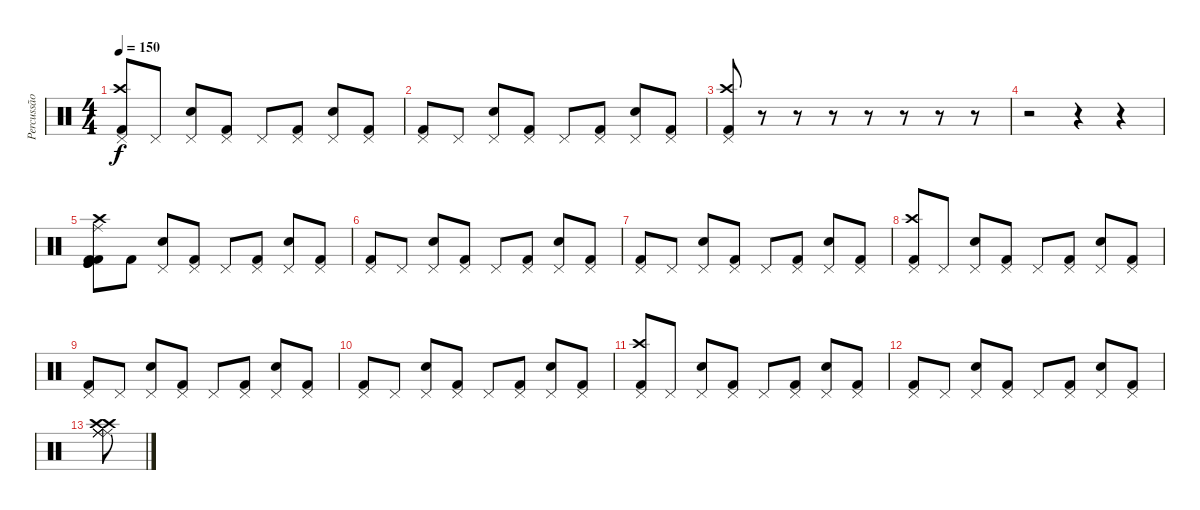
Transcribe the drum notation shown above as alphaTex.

\track ("Percussão" "Percussão") {instrument percussion}
\staff {score}
\articulation defaults
\ts (4 4)
\tempo 150
\clef neutral
\ks c
("Pedal Hi-Hat (hit)" "Crash high (hit)" "Kick (hit) 2").8{dy f} "Pedal Hi-Hat (hit)".8 ("Pedal Hi-Hat (hit)" "Electric Snare (hit)").8 ("Pedal Hi-Hat (hit)" "Kick (hit) 2").8 "Pedal Hi-Hat (hit)".8 ("Pedal Hi-Hat (hit)" "Kick (hit) 2").8 ("Pedal Hi-Hat (hit)" "Electric Snare (hit)").8 ("Pedal Hi-Hat (hit)" "Kick (hit) 2").8 |
("Pedal Hi-Hat (hit)" "Kick (hit) 2").8 "Pedal Hi-Hat (hit)".8 ("Pedal Hi-Hat (hit)" "Electric Snare (hit)").8 ("Pedal Hi-Hat (hit)" "Kick (hit) 2").8 "Pedal Hi-Hat (hit)".8 ("Pedal Hi-Hat (hit)" "Kick (hit) 2").8 ("Pedal Hi-Hat (hit)" "Electric Snare (hit)").8 ("Pedal Hi-Hat (hit)" "Kick (hit) 2").8 |
("Pedal Hi-Hat (hit)" "Crash high (hit)" "Kick (hit) 2").8 r.8 r.8 r.8 r.8 r.8 r.8 r.8 |
r.2 r.4 r.4 |
("Kick (hit) 2" "Kick (hit) 2" "Ride (middle)" "Kick (hit)" "Kick (hit)" "Crash high (hit)").8 "Kick (hit) 2".8 ("Pedal Hi-Hat (hit)" "Electric Snare (hit)").8 ("Pedal Hi-Hat (hit)" "Kick (hit) 2").8 "Pedal Hi-Hat (hit)".8 ("Pedal Hi-Hat (hit)" "Kick (hit) 2").8 ("Pedal Hi-Hat (hit)" "Electric Snare (hit)").8 ("Pedal Hi-Hat (hit)" "Kick (hit) 2").8 |
("Pedal Hi-Hat (hit)" "Kick (hit) 2").8 "Pedal Hi-Hat (hit)".8 ("Pedal Hi-Hat (hit)" "Electric Snare (hit)").8 ("Pedal Hi-Hat (hit)" "Kick (hit) 2").8 "Pedal Hi-Hat (hit)".8 ("Pedal Hi-Hat (hit)" "Kick (hit) 2").8 ("Pedal Hi-Hat (hit)" "Electric Snare (hit)").8 ("Pedal Hi-Hat (hit)" "Kick (hit) 2").8 |
("Pedal Hi-Hat (hit)" "Kick (hit) 2").8 "Pedal Hi-Hat (hit)".8 ("Pedal Hi-Hat (hit)" "Electric Snare (hit)").8 ("Pedal Hi-Hat (hit)" "Kick (hit) 2").8 "Pedal Hi-Hat (hit)".8 ("Pedal Hi-Hat (hit)" "Kick (hit) 2").8 ("Pedal Hi-Hat (hit)" "Electric Snare (hit)").8 ("Pedal Hi-Hat (hit)" "Kick (hit) 2").8 |
("Pedal Hi-Hat (hit)" "Crash high (hit)" "Kick (hit) 2").8 "Pedal Hi-Hat (hit)".8 ("Pedal Hi-Hat (hit)" "Electric Snare (hit)").8 ("Pedal Hi-Hat (hit)" "Kick (hit) 2").8 "Pedal Hi-Hat (hit)".8 ("Pedal Hi-Hat (hit)" "Kick (hit) 2").8 ("Pedal Hi-Hat (hit)" "Electric Snare (hit)").8 ("Pedal Hi-Hat (hit)" "Kick (hit) 2").8 |
("Pedal Hi-Hat (hit)" "Kick (hit) 2").8 "Pedal Hi-Hat (hit)".8 ("Pedal Hi-Hat (hit)" "Electric Snare (hit)").8 ("Pedal Hi-Hat (hit)" "Kick (hit) 2").8 "Pedal Hi-Hat (hit)".8 ("Pedal Hi-Hat (hit)" "Kick (hit) 2").8 ("Pedal Hi-Hat (hit)" "Electric Snare (hit)").8 ("Pedal Hi-Hat (hit)" "Kick (hit) 2").8 |
("Pedal Hi-Hat (hit)" "Kick (hit) 2").8 "Pedal Hi-Hat (hit)".8 ("Pedal Hi-Hat (hit)" "Electric Snare (hit)").8 ("Pedal Hi-Hat (hit)" "Kick (hit) 2").8 "Pedal Hi-Hat (hit)".8 ("Pedal Hi-Hat (hit)" "Kick (hit) 2").8 ("Pedal Hi-Hat (hit)" "Electric Snare (hit)").8 ("Pedal Hi-Hat (hit)" "Kick (hit) 2").8 |
("Pedal Hi-Hat (hit)" "Crash high (hit)" "Kick (hit) 2").8 "Pedal Hi-Hat (hit)".8 ("Pedal Hi-Hat (hit)" "Electric Snare (hit)").8 ("Pedal Hi-Hat (hit)" "Kick (hit) 2").8 "Pedal Hi-Hat (hit)".8 ("Pedal Hi-Hat (hit)" "Kick (hit) 2").8 ("Pedal Hi-Hat (hit)" "Electric Snare (hit)").8 ("Pedal Hi-Hat (hit)" "Kick (hit) 2").8 |
("Pedal Hi-Hat (hit)" "Kick (hit) 2").8 "Pedal Hi-Hat (hit)".8 ("Pedal Hi-Hat (hit)" "Electric Snare (hit)").8 ("Pedal Hi-Hat (hit)" "Kick (hit) 2").8 "Pedal Hi-Hat (hit)".8 ("Pedal Hi-Hat (hit)" "Kick (hit) 2").8 ("Pedal Hi-Hat (hit)" "Electric Snare (hit)").8 ("Pedal Hi-Hat (hit)" "Kick (hit) 2").8 |
("Ride (middle)" "Ride (middle)" "Ride (middle)" "Ride (middle)" "Crash high (hit)" "Crash high (hit)").8
